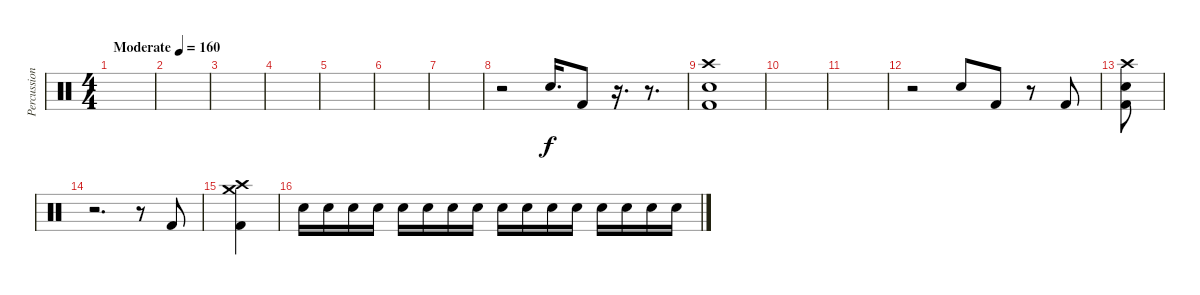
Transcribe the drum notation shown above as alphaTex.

\track ("Percussion" "Percussion") {instrument percussion}
\staff {score}
\articulation defaults
\ts (4 4)
\tempo (160 "Moderate")
\clef neutral
\ks c
|
|
|
|
|
|
|
r.2 "Electric Snare (hit)".16{d} "Kick (hit) 2".8 r.16{d} r.8{d} |
("Crash high (hit)" "Kick (hit) 2" "Electric Snare (hit)").1 |
|
|
r.2 "Electric Snare (hit)".8 "Kick (hit) 2".8 r.8 "Kick (hit) 2".8 |
("Crash high (hit)" "Kick (hit) 2" "Electric Snare (hit)").8 |
r.2{d} r.8 "Kick (hit) 2".8 |
("Crash high (hit)" "Crash medium (hit)" "Kick (hit) 2").4 |
"Electric Snare (hit)".16 "Electric Snare (hit)".16 "Electric Snare (hit)".16 "Electric Snare (hit)".16 "Electric Snare (hit)".16 "Electric Snare (hit)".16 "Electric Snare (hit)".16 "Electric Snare (hit)".16 "Electric Snare (hit)".16 "Electric Snare (hit)".16 "Electric Snare (hit)".16 "Electric Snare (hit)".16 "Electric Snare (hit)".16 "Electric Snare (hit)".16 "Electric Snare (hit)".16 "Electric Snare (hit)".16
